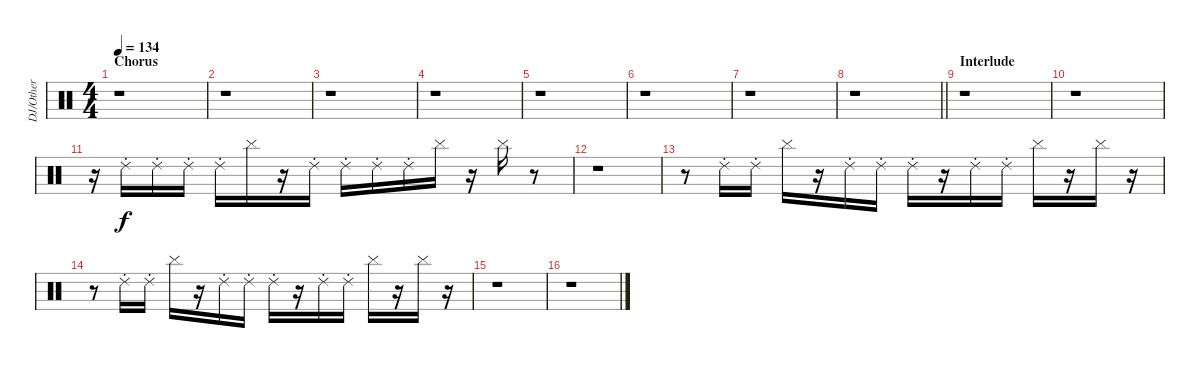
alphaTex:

\track ("DJ/Other" "DJ/Other") {instrument percussion}
\staff {score}
\articulation defaults
\ts (4 4)
\section ("" "Chorus")
\tempo 134
\clef neutral
\ks c
r.1{dy f} |
r.1 |
r.1 |
r.1 |
r.1 |
r.1 |
r.1 |
\barLineRight lightlight
r.1 |
\section ("" "Interlude")
r.1 |
r.1 |
r.16 "Ride (choke) 2".16 "Ride (choke) 2".16 "Ride (choke) 2".16 "Ride (choke) 2".16 "Cymbal (hit)".16 r.16 "Ride (choke) 2".16 "Ride (choke) 2".16 "Ride (choke) 2".16 "Ride (choke) 2".16 "Cymbal (hit)".16 r.16 "Cymbal (hit)".16 r.8 |
r.1 |
r.8 "Ride (choke) 2".16 "Ride (choke) 2".16 "Cymbal (hit)".16 r.16 "Ride (choke) 2".16 "Ride (choke) 2".16 "Ride (choke) 2".16 r.16 "Ride (choke) 2".16 "Ride (choke) 2".16 "Cymbal (hit)".16 r.16 "Cymbal (hit)".16 r.16 |
r.8 "Ride (choke) 2".16 "Ride (choke) 2".16 "Cymbal (hit)".16 r.16 "Ride (choke) 2".16 "Ride (choke) 2".16 "Ride (choke) 2".16 r.16 "Ride (choke) 2".16 "Ride (choke) 2".16 "Cymbal (hit)".16 r.16 "Cymbal (hit)".16 r.16 |
r.1 |
r.1
